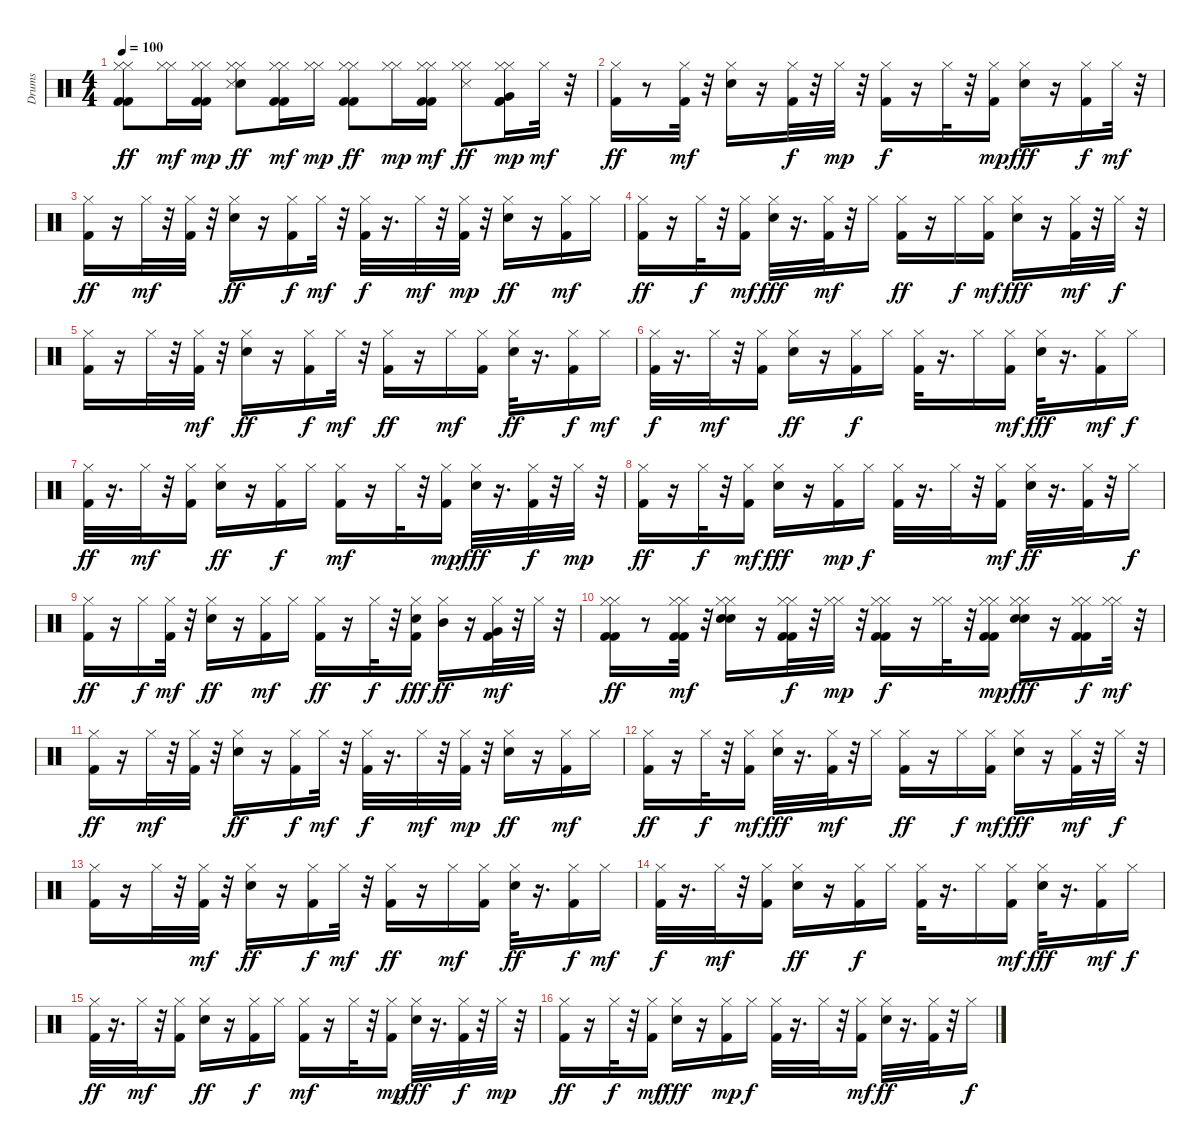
\track ("Drums" "Drums") {instrument percussion}
\staff {score}
\articulation defaults
\ts (4 4)
\tempo 100
\clef neutral
\ks c
("Hi-Hat (closed)" "Kick (hit) 2" "Kick (hit) 2" "Hi-Hat (closed)").8{dy ff} ("Hi-Hat (closed)" "Hi-Hat (closed)").16{dy mf} ("Kick (hit) 2" "Hi-Hat (closed)" "Kick (hit) 2" "Hi-Hat (closed)").16{dy mp} ("Hi-Hat (closed)" "Snare (hit) 2" "Hi-Hat (closed)" "Snare (side stick) 3").8{dy ff} ("Hi-Hat (closed)" "Kick (hit) 2" "Kick (hit) 2" "Hi-Hat (closed)").16{dy mf} ("Hi-Hat (closed)" "Hi-Hat (closed)").16{dy mp} ("Hi-Hat (closed)" "Kick (hit) 2" "Kick (hit) 2" "Hi-Hat (closed)").8{dy ff} ("Hi-Hat (closed)" "Hi-Hat (closed)").16{dy mp} ("Hi-Hat (closed)" "Kick (hit) 2" "Kick (hit) 2" "Hi-Hat (closed)").16{dy mf} ("Hi-Hat (closed)" "Hi-Hat (closed)" "Snare (side stick) 3").8{dy ff} ("Kick (hit) 2" "Hi-Hat (closed)" "Hi-Hat (closed)" "Kick (hit) 2" "Very Low Tom (hit)").16{dy mp} "Hi-Hat (closed)".32{dy mf} r.32 |
("Kick (hit) 2" "Hi-Hat (closed)").16{dy ff} r.8 ("Hi-Hat (closed)" "Kick (hit) 2").32{dy mf} r.32 ("Snare (hit) 2" "Hi-Hat (closed)").16 r.16 ("Kick (hit) 2" "Hi-Hat (closed)").32{dy f} r.32 "Hi-Hat (closed)".32{dy mp} r.32 ("Kick (hit) 2" "Hi-Hat (closed)").16{dy f} r.16 "Hi-Hat (closed)".32 r.32 ("Kick (hit) 2" "Hi-Hat (closed)").16{dy mp} ("Hi-Hat (closed)" "Snare (hit) 2").16{dy fff} r.16 ("Kick (hit) 2" "Hi-Hat (closed)").16{dy f} "Hi-Hat (closed)".32{dy mf} r.32 |
("Kick (hit) 2" "Hi-Hat (closed)").16{dy ff} r.16 "Hi-Hat (closed)".32{dy mf} r.32 ("Kick (hit) 2" "Hi-Hat (closed)").32 r.32 ("Hi-Hat (closed)" "Snare (hit) 2").16{dy ff} r.16 ("Kick (hit) 2" "Hi-Hat (closed)").16{dy f} "Hi-Hat (closed)".32{dy mf} r.32 ("Kick (hit) 2" "Hi-Hat (closed)").32{dy f} r.16{d} "Hi-Hat (closed)".32{dy mf} r.32 ("Kick (hit) 2" "Hi-Hat (closed)").32{dy mp} r.32 ("Hi-Hat (closed)" "Snare (hit) 2").16{dy ff} r.16 ("Hi-Hat (closed)" "Kick (hit) 2").16{dy mf} "Hi-Hat (closed)".16 |
("Hi-Hat (closed)" "Kick (hit) 2").16{dy ff} r.16 "Hi-Hat (closed)".32{dy f} r.32 ("Kick (hit) 2" "Hi-Hat (closed)").16{dy mf} ("Hi-Hat (closed)" "Snare (hit) 2").32{dy fff} r.16{d} ("Kick (hit) 2" "Hi-Hat (closed)").32{dy mf} r.32 "Hi-Hat (closed)".16 ("Hi-Hat (closed)" "Kick (hit) 2").16{dy ff} r.16 "Hi-Hat (closed)".16{dy f} ("Kick (hit) 2" "Hi-Hat (closed)").16{dy mf} ("Hi-Hat (closed)" "Snare (hit) 2").16{dy fff} r.16 ("Kick (hit) 2" "Hi-Hat (closed)").32{dy mf} r.32 "Hi-Hat (closed)".32{dy f} r.32 |
("Hi-Hat (closed)" "Kick (hit) 2").16 r.16 "Hi-Hat (closed)".32 r.32 ("Kick (hit) 2" "Hi-Hat (closed)").32{dy mf} r.32 ("Hi-Hat (closed)" "Snare (hit) 2").16{dy ff} r.16 ("Kick (hit) 2" "Hi-Hat (closed)").16{dy f} "Hi-Hat (closed)".32{dy mf} r.32 ("Kick (hit) 2" "Hi-Hat (closed)").16{dy ff} r.16 "Hi-Hat (closed)".16{dy mf} ("Kick (hit) 2" "Hi-Hat (closed)").16 ("Hi-Hat (closed)" "Snare (hit) 2").32{dy ff} r.16{d} ("Kick (hit) 2" "Hi-Hat (closed)").16{dy f} "Hi-Hat (closed)".16{dy mf} |
("Kick (hit) 2" "Hi-Hat (closed)").32{dy f} r.16{d} "Hi-Hat (closed)".32{dy mf} r.32 ("Kick (hit) 2" "Hi-Hat (closed)").16 ("Hi-Hat (closed)" "Snare (hit) 2").16{dy ff} r.16 ("Kick (hit) 2" "Hi-Hat (closed)").16{dy f} "Hi-Hat (closed)".16 ("Kick (hit) 2" "Hi-Hat (closed)").32 r.16{d} "Hi-Hat (closed)".16 ("Kick (hit) 2" "Hi-Hat (closed)").16{dy mf} ("Hi-Hat (closed)" "Snare (hit) 2").32{dy fff} r.16{d} ("Kick (hit) 2" "Hi-Hat (closed)").16{dy mf} "Hi-Hat (closed)".16{dy f} |
("Kick (hit) 2" "Hi-Hat (closed)").32{dy ff} r.16{d} "Hi-Hat (closed)".32{dy mf} r.32 ("Kick (hit) 2" "Hi-Hat (closed)").16 ("Hi-Hat (closed)" "Snare (hit) 2").16{dy ff} r.16 ("Kick (hit) 2" "Hi-Hat (closed)").16{dy f} "Hi-Hat (closed)".16 ("Hi-Hat (closed)" "Kick (hit) 2").16{dy mf} r.16 "Hi-Hat (closed)".32 r.32 ("Kick (hit) 2" "Hi-Hat (closed)").16{dy mp} ("Hi-Hat (closed)" "Snare (hit) 2").32{dy fff} r.16{d} ("Kick (hit) 2" "Hi-Hat (closed)").32{dy f} r.32 "Hi-Hat (closed)".32{dy mp} r.32 |
("Kick (hit) 2" "Hi-Hat (closed)").16{dy ff} r.16 "Hi-Hat (closed)".32{dy f} r.32 ("Hi-Hat (closed)" "Kick (hit) 2").16{dy mf} ("Hi-Hat (closed)" "Snare (hit) 2").16{dy fff} r.16 ("Kick (hit) 2" "Hi-Hat (closed)").16{dy mp} "Hi-Hat (closed)".16{dy f} ("Kick (hit) 2" "Hi-Hat (closed)").32 r.16{d} "Hi-Hat (closed)".32 r.32 ("Kick (hit) 2" "Hi-Hat (closed)").16{dy mf} ("Hi-Hat (closed)" "Snare (hit) 2").32{dy ff} r.16{d} ("Kick (hit) 2" "Hi-Hat (closed)").32 r.32 "Hi-Hat (closed)".16{dy f} |
("Hi-Hat (closed)" "Kick (hit) 2").16{dy ff} r.16 "Hi-Hat (closed)".16{dy f} ("Kick (hit) 2" "Hi-Hat (closed)").32{dy mf} r.32 ("Hi-Hat (closed)" "Snare (hit) 2").16{dy ff} r.16 ("Hi-Hat (closed)" "Kick (hit) 2").16{dy mf} "Hi-Hat (closed)".16 ("Hi-Hat (closed)" "Kick (hit) 2").16{dy ff} r.16 "Hi-Hat (closed)".32{dy f} r.32 ("Hi-Hat (closed)" "Kick (hit) 2" "Snare (hit) 2").16{dy fff} ("Hi-Hat (closed)" "Mid Tom (hit)").16{dy ff} r.16 ("Kick (hit) 2" "Hi-Hat (closed)" "Very Low Tom (hit)").32{dy mf} r.32 "Hi-Hat (closed)".32 r.32 |
("Kick (hit) 2" "Kick (hit) 2" "Hi-Hat (closed)" "Hi-Hat (closed)").16{dy ff} r.8 ("Hi-Hat (closed)" "Kick (hit) 2" "Hi-Hat (closed)" "Kick (hit) 2").32{dy mf} r.32 ("Snare (hit) 2" "Snare (hit) 2" "Hi-Hat (closed)" "Hi-Hat (closed)").16 r.16 ("Kick (hit) 2" "Kick (hit) 2" "Hi-Hat (closed)" "Hi-Hat (closed)").32{dy f} r.32 ("Hi-Hat (closed)" "Hi-Hat (closed)").32{dy mp} r.32 ("Kick (hit) 2" "Kick (hit) 2" "Hi-Hat (closed)" "Hi-Hat (closed)").16{dy f} r.16 ("Hi-Hat (closed)" "Hi-Hat (closed)").32 r.32 ("Kick (hit) 2" "Kick (hit) 2" "Hi-Hat (closed)" "Hi-Hat (closed)").16{dy mp} ("Hi-Hat (closed)" "Hi-Hat (closed)" "Snare (hit) 2" "Snare (hit) 2").16{dy fff} r.16 ("Kick (hit) 2" "Kick (hit) 2" "Hi-Hat (closed)" "Hi-Hat (closed)").16{dy f} ("Hi-Hat (closed)" "Hi-Hat (closed)").32{dy mf} r.32 |
("Kick (hit) 2" "Hi-Hat (closed)").16{dy ff} r.16 "Hi-Hat (closed)".32{dy mf} r.32 ("Kick (hit) 2" "Hi-Hat (closed)").32 r.32 ("Hi-Hat (closed)" "Snare (hit) 2").16{dy ff} r.16 ("Kick (hit) 2" "Hi-Hat (closed)").16{dy f} "Hi-Hat (closed)".32{dy mf} r.32 ("Kick (hit) 2" "Hi-Hat (closed)").32{dy f} r.16{d} "Hi-Hat (closed)".32{dy mf} r.32 ("Kick (hit) 2" "Hi-Hat (closed)").32{dy mp} r.32 ("Hi-Hat (closed)" "Snare (hit) 2").16{dy ff} r.16 ("Hi-Hat (closed)" "Kick (hit) 2").16{dy mf} "Hi-Hat (closed)".16 |
("Hi-Hat (closed)" "Kick (hit) 2").16{dy ff} r.16 "Hi-Hat (closed)".32{dy f} r.32 ("Kick (hit) 2" "Hi-Hat (closed)").16{dy mf} ("Hi-Hat (closed)" "Snare (hit) 2").32{dy fff} r.16{d} ("Kick (hit) 2" "Hi-Hat (closed)").32{dy mf} r.32 "Hi-Hat (closed)".16 ("Hi-Hat (closed)" "Kick (hit) 2").16{dy ff} r.16 "Hi-Hat (closed)".16{dy f} ("Kick (hit) 2" "Hi-Hat (closed)").16{dy mf} ("Hi-Hat (closed)" "Snare (hit) 2").16{dy fff} r.16 ("Kick (hit) 2" "Hi-Hat (closed)").32{dy mf} r.32 "Hi-Hat (closed)".32{dy f} r.32 |
("Hi-Hat (closed)" "Kick (hit) 2").16 r.16 "Hi-Hat (closed)".32 r.32 ("Kick (hit) 2" "Hi-Hat (closed)").32{dy mf} r.32 ("Hi-Hat (closed)" "Snare (hit) 2").16{dy ff} r.16 ("Kick (hit) 2" "Hi-Hat (closed)").16{dy f} "Hi-Hat (closed)".32{dy mf} r.32 ("Kick (hit) 2" "Hi-Hat (closed)").16{dy ff} r.16 "Hi-Hat (closed)".16{dy mf} ("Kick (hit) 2" "Hi-Hat (closed)").16 ("Hi-Hat (closed)" "Snare (hit) 2").32{dy ff} r.16{d} ("Kick (hit) 2" "Hi-Hat (closed)").16{dy f} "Hi-Hat (closed)".16{dy mf} |
("Kick (hit) 2" "Hi-Hat (closed)").32{dy f} r.16{d} "Hi-Hat (closed)".32{dy mf} r.32 ("Kick (hit) 2" "Hi-Hat (closed)").16 ("Hi-Hat (closed)" "Snare (hit) 2").16{dy ff} r.16 ("Kick (hit) 2" "Hi-Hat (closed)").16{dy f} "Hi-Hat (closed)".16 ("Kick (hit) 2" "Hi-Hat (closed)").32 r.16{d} "Hi-Hat (closed)".16 ("Kick (hit) 2" "Hi-Hat (closed)").16{dy mf} ("Hi-Hat (closed)" "Snare (hit) 2").32{dy fff} r.16{d} ("Kick (hit) 2" "Hi-Hat (closed)").16{dy mf} "Hi-Hat (closed)".16{dy f} |
("Kick (hit) 2" "Hi-Hat (closed)").32{dy ff} r.16{d} "Hi-Hat (closed)".32{dy mf} r.32 ("Kick (hit) 2" "Hi-Hat (closed)").16 ("Hi-Hat (closed)" "Snare (hit) 2").16{dy ff} r.16 ("Kick (hit) 2" "Hi-Hat (closed)").16{dy f} "Hi-Hat (closed)".16 ("Hi-Hat (closed)" "Kick (hit) 2").16{dy mf} r.16 "Hi-Hat (closed)".32 r.32 ("Kick (hit) 2" "Hi-Hat (closed)").16{dy mp} ("Hi-Hat (closed)" "Snare (hit) 2").32{dy fff} r.16{d} ("Kick (hit) 2" "Hi-Hat (closed)").32{dy f} r.32 "Hi-Hat (closed)".32{dy mp} r.32 |
("Kick (hit) 2" "Hi-Hat (closed)").16{dy ff} r.16 "Hi-Hat (closed)".32{dy f} r.32 ("Hi-Hat (closed)" "Kick (hit) 2").16{dy mf} ("Hi-Hat (closed)" "Snare (hit) 2").16{dy fff} r.16 ("Kick (hit) 2" "Hi-Hat (closed)").16{dy mp} "Hi-Hat (closed)".16{dy f} ("Kick (hit) 2" "Hi-Hat (closed)").32 r.16{d} "Hi-Hat (closed)".32 r.32 ("Kick (hit) 2" "Hi-Hat (closed)").16{dy mf} ("Hi-Hat (closed)" "Snare (hit) 2").32{dy ff} r.16{d} ("Kick (hit) 2" "Hi-Hat (closed)").32 r.32 "Hi-Hat (closed)".16{dy f}
